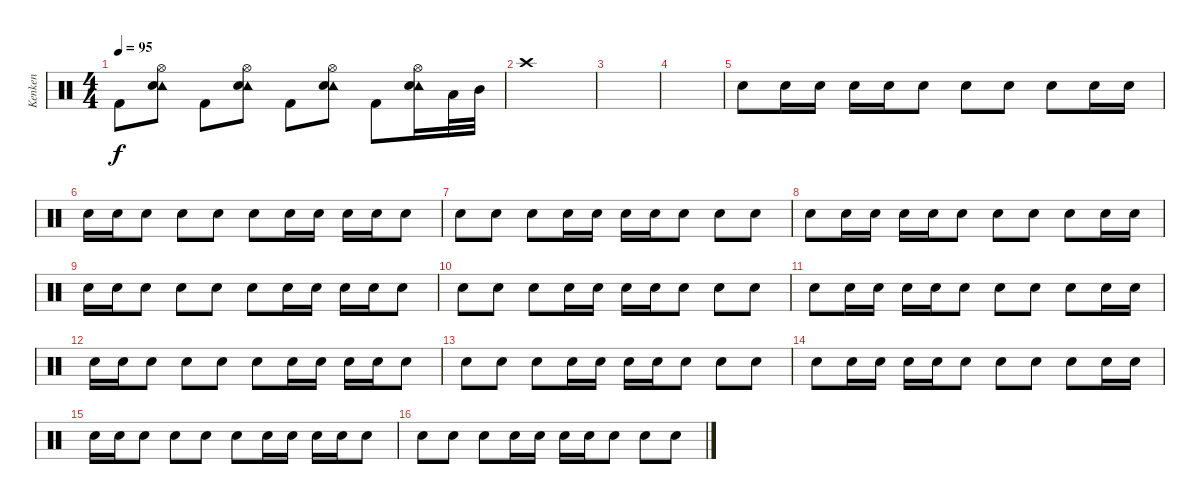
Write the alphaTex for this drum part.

\track ("Kenken" "Kenken") {instrument percussion}
\staff {score}
\articulation defaults
\ts (4 4)
\tempo 95
\clef neutral
\ks c "Kick (hit) 2".8{dy f}
("Hi-Hat (open)" "Tambourine (hit)" "Snare (hit) 2").8 "Kick (hit) 2".8 ("Hi-Hat (open)" "Tambourine (hit)" "Snare (hit) 2").8 "Kick (hit) 2".8 ("Hi-Hat (open)" "Tambourine (hit)" "Snare (hit) 2").8 "Kick (hit) 2".8 ("Hi-Hat (open)" "Tambourine (hit)" "Snare (hit) 2").16 "Low Tom (hit)".32 "Mid Tom (hit)".32 |
"Crash high (hit)".1 |
|
|
"Snare (hit) 2".8 "Snare (hit) 2".16 "Snare (hit) 2".16 "Snare (hit) 2".16 "Snare (hit) 2".16 "Snare (hit) 2".8 "Snare (hit) 2".8 "Snare (hit) 2".8 "Snare (hit) 2".8 "Snare (hit) 2".16 "Snare (hit) 2".16 |
"Snare (hit) 2".16 "Snare (hit) 2".16 "Snare (hit) 2".8 "Snare (hit) 2".8 "Snare (hit) 2".8 "Snare (hit) 2".8 "Snare (hit) 2".16 "Snare (hit) 2".16 "Snare (hit) 2".16 "Snare (hit) 2".16 "Snare (hit) 2".8 |
"Snare (hit) 2".8 "Snare (hit) 2".8 "Snare (hit) 2".8 "Snare (hit) 2".16 "Snare (hit) 2".16 "Snare (hit) 2".16 "Snare (hit) 2".16 "Snare (hit) 2".8 "Snare (hit) 2".8 "Snare (hit) 2".8 |
"Snare (hit) 2".8 "Snare (hit) 2".16 "Snare (hit) 2".16 "Snare (hit) 2".16 "Snare (hit) 2".16 "Snare (hit) 2".8 "Snare (hit) 2".8 "Snare (hit) 2".8 "Snare (hit) 2".8 "Snare (hit) 2".16 "Snare (hit) 2".16 |
"Snare (hit) 2".16 "Snare (hit) 2".16 "Snare (hit) 2".8 "Snare (hit) 2".8 "Snare (hit) 2".8 "Snare (hit) 2".8 "Snare (hit) 2".16 "Snare (hit) 2".16 "Snare (hit) 2".16 "Snare (hit) 2".16 "Snare (hit) 2".8 |
"Snare (hit) 2".8 "Snare (hit) 2".8 "Snare (hit) 2".8 "Snare (hit) 2".16 "Snare (hit) 2".16 "Snare (hit) 2".16 "Snare (hit) 2".16 "Snare (hit) 2".8 "Snare (hit) 2".8 "Snare (hit) 2".8 |
"Snare (hit) 2".8 "Snare (hit) 2".16 "Snare (hit) 2".16 "Snare (hit) 2".16 "Snare (hit) 2".16 "Snare (hit) 2".8 "Snare (hit) 2".8 "Snare (hit) 2".8 "Snare (hit) 2".8 "Snare (hit) 2".16 "Snare (hit) 2".16 |
"Snare (hit) 2".16 "Snare (hit) 2".16 "Snare (hit) 2".8 "Snare (hit) 2".8 "Snare (hit) 2".8 "Snare (hit) 2".8 "Snare (hit) 2".16 "Snare (hit) 2".16 "Snare (hit) 2".16 "Snare (hit) 2".16 "Snare (hit) 2".8 |
"Snare (hit) 2".8 "Snare (hit) 2".8 "Snare (hit) 2".8 "Snare (hit) 2".16 "Snare (hit) 2".16 "Snare (hit) 2".16 "Snare (hit) 2".16 "Snare (hit) 2".8 "Snare (hit) 2".8 "Snare (hit) 2".8 |
"Snare (hit) 2".8 "Snare (hit) 2".16 "Snare (hit) 2".16 "Snare (hit) 2".16 "Snare (hit) 2".16 "Snare (hit) 2".8 "Snare (hit) 2".8 "Snare (hit) 2".8 "Snare (hit) 2".8 "Snare (hit) 2".16 "Snare (hit) 2".16 |
"Snare (hit) 2".16 "Snare (hit) 2".16 "Snare (hit) 2".8 "Snare (hit) 2".8 "Snare (hit) 2".8 "Snare (hit) 2".8 "Snare (hit) 2".16 "Snare (hit) 2".16 "Snare (hit) 2".16 "Snare (hit) 2".16 "Snare (hit) 2".8 |
"Snare (hit) 2".8 "Snare (hit) 2".8 "Snare (hit) 2".8 "Snare (hit) 2".16 "Snare (hit) 2".16 "Snare (hit) 2".16 "Snare (hit) 2".16 "Snare (hit) 2".8 "Snare (hit) 2".8 "Snare (hit) 2".8
